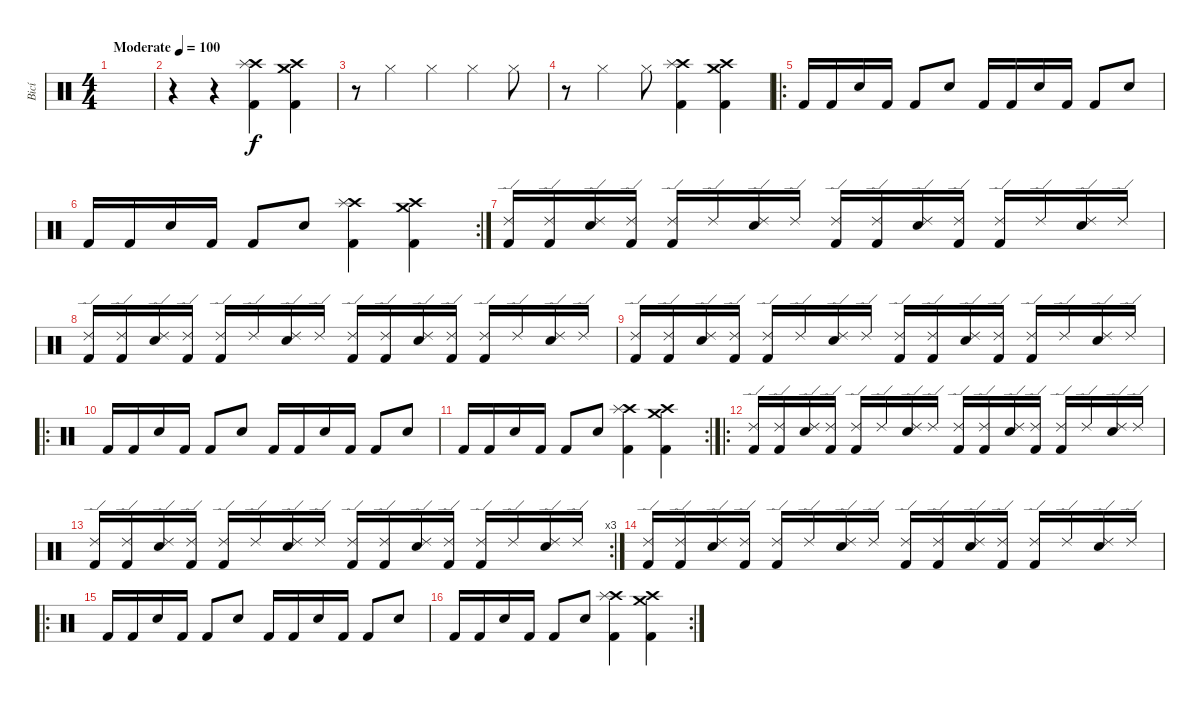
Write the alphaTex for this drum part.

\track ("Bicí" "Bicí") {instrument percussion}
\staff {score}
\articulation defaults
\ts (4 4)
\tempo (100 "Moderate")
\clef neutral
\ks c
|
r.4 r.4 ("Kick (hit) 2" "Crash high (hit)" "Splash (hit)").4 ("Kick (hit) 2" "Crash high (hit)" "Crash medium (hit)").4 |
r.8 "Hi-Hat (closed)".4 "Hi-Hat (closed)".4 "Hi-Hat (closed)".4 "Hi-Hat (closed)".8 |
r.8 "Hi-Hat (closed)".4 "Hi-Hat (closed)".8 ("Kick (hit) 2" "Crash high (hit)" "Splash (hit)").4 ("Kick (hit) 2" "Crash high (hit)" "Crash medium (hit)").4 |
\ro "Kick (hit) 2".16 "Kick (hit) 2".16 "Snare (hit) 2".16 "Kick (hit) 2".16 "Kick (hit) 2".8 "Snare (hit) 2".8 "Kick (hit) 2".16 "Kick (hit) 2".16 "Snare (hit) 2".16 "Kick (hit) 2".16 "Kick (hit) 2".8 "Snare (hit) 2".8
|
\rc 2 "Kick (hit) 2".16 "Kick (hit) 2".16 "Snare (hit) 2".16 "Kick (hit) 2".16 "Kick (hit) 2".8 "Snare (hit) 2".8
("Kick (hit) 2" "Crash high (hit)" "Splash (hit)").4 ("Kick (hit) 2" "Crash high (hit)" "Crash medium (hit)").4 |
("Kick (hit) 2" "Ride (edge) 2").16 ("Kick (hit) 2" "Ride (edge) 2").16 ("Ride (edge) 2" "Snare (hit) 2").16 ("Kick (hit) 2" "Ride (edge) 2").16 ("Kick (hit) 2" "Ride (edge) 2").16 "Ride (edge) 2".16 ("Ride (edge) 2" "Snare (hit) 2").16 "Ride (edge) 2".16 ("Kick (hit) 2" "Ride (edge) 2").16 ("Kick (hit) 2" "Ride (edge) 2").16 ("Ride (edge) 2" "Snare (hit) 2").16 ("Kick (hit) 2" "Ride (edge) 2").16 ("Kick (hit) 2" "Ride (edge) 2").16 "Ride (edge) 2".16 ("Ride (edge) 2" "Snare (hit) 2").16 "Ride (edge) 2".16 |
("Kick (hit) 2" "Ride (edge) 2").16 ("Kick (hit) 2" "Ride (edge) 2").16 ("Ride (edge) 2" "Snare (hit) 2").16 ("Kick (hit) 2" "Ride (edge) 2").16 ("Kick (hit) 2" "Ride (edge) 2").16 "Ride (edge) 2".16 ("Ride (edge) 2" "Snare (hit) 2").16 "Ride (edge) 2".16 ("Kick (hit) 2" "Ride (edge) 2").16 ("Kick (hit) 2" "Ride (edge) 2").16 ("Ride (edge) 2" "Snare (hit) 2").16 ("Kick (hit) 2" "Ride (edge) 2").16 ("Kick (hit) 2" "Ride (edge) 2").16 "Ride (edge) 2".16 ("Ride (edge) 2" "Snare (hit) 2").16 "Ride (edge) 2".16 |
("Kick (hit) 2" "Ride (edge) 2").16 ("Kick (hit) 2" "Ride (edge) 2").16 ("Ride (edge) 2" "Snare (hit) 2").16 ("Kick (hit) 2" "Ride (edge) 2").16 ("Kick (hit) 2" "Ride (edge) 2").16 "Ride (edge) 2".16 ("Ride (edge) 2" "Snare (hit) 2").16 "Ride (edge) 2".16 ("Kick (hit) 2" "Ride (edge) 2").16 ("Kick (hit) 2" "Ride (edge) 2").16 ("Ride (edge) 2" "Snare (hit) 2").16 ("Kick (hit) 2" "Ride (edge) 2").16 ("Kick (hit) 2" "Ride (edge) 2").16 "Ride (edge) 2".16 ("Ride (edge) 2" "Snare (hit) 2").16 "Ride (edge) 2".16 |
\ro "Kick (hit) 2".16 "Kick (hit) 2".16 "Snare (hit) 2".16 "Kick (hit) 2".16 "Kick (hit) 2".8 "Snare (hit) 2".8 "Kick (hit) 2".16 "Kick (hit) 2".16 "Snare (hit) 2".16 "Kick (hit) 2".16 "Kick (hit) 2".8 "Snare (hit) 2".8
|
\rc 2 "Kick (hit) 2".16 "Kick (hit) 2".16 "Snare (hit) 2".16 "Kick (hit) 2".16 "Kick (hit) 2".8 "Snare (hit) 2".8
("Kick (hit) 2" "Crash high (hit)" "Splash (hit)").4 ("Kick (hit) 2" "Crash high (hit)" "Crash medium (hit)").4 |
\ro
("Kick (hit) 2" "Ride (edge) 2").16 ("Kick (hit) 2" "Ride (edge) 2").16 ("Ride (edge) 2" "Snare (hit) 2").16 ("Kick (hit) 2" "Ride (edge) 2").16 ("Kick (hit) 2" "Ride (edge) 2").16 "Ride (edge) 2".16 ("Ride (edge) 2" "Snare (hit) 2").16 "Ride (edge) 2".16 ("Kick (hit) 2" "Ride (edge) 2").16 ("Kick (hit) 2" "Ride (edge) 2").16 ("Ride (edge) 2" "Snare (hit) 2").16 ("Kick (hit) 2" "Ride (edge) 2").16 ("Kick (hit) 2" "Ride (edge) 2").16 "Ride (edge) 2".16 ("Ride (edge) 2" "Snare (hit) 2").16 "Ride (edge) 2".16 |
\rc 3
("Kick (hit) 2" "Ride (edge) 2").16 ("Kick (hit) 2" "Ride (edge) 2").16 ("Ride (edge) 2" "Snare (hit) 2").16 ("Kick (hit) 2" "Ride (edge) 2").16 ("Kick (hit) 2" "Ride (edge) 2").16 "Ride (edge) 2".16 ("Ride (edge) 2" "Snare (hit) 2").16 "Ride (edge) 2".16 ("Kick (hit) 2" "Ride (edge) 2").16 ("Kick (hit) 2" "Ride (edge) 2").16 ("Ride (edge) 2" "Snare (hit) 2").16 ("Kick (hit) 2" "Ride (edge) 2").16 ("Kick (hit) 2" "Ride (edge) 2").16 "Ride (edge) 2".16 ("Ride (edge) 2" "Snare (hit) 2").16 "Ride (edge) 2".16 |
("Kick (hit) 2" "Ride (edge) 2").16 ("Kick (hit) 2" "Ride (edge) 2").16 ("Ride (edge) 2" "Snare (hit) 2").16 ("Kick (hit) 2" "Ride (edge) 2").16 ("Kick (hit) 2" "Ride (edge) 2").16 "Ride (edge) 2".16 ("Ride (edge) 2" "Snare (hit) 2").16 "Ride (edge) 2".16 ("Kick (hit) 2" "Ride (edge) 2").16 ("Kick (hit) 2" "Ride (edge) 2").16 ("Ride (edge) 2" "Snare (hit) 2").16 ("Kick (hit) 2" "Ride (edge) 2").16 ("Kick (hit) 2" "Ride (edge) 2").16 "Ride (edge) 2".16 ("Ride (edge) 2" "Snare (hit) 2").16 "Ride (edge) 2".16 |
\ro "Kick (hit) 2".16 "Kick (hit) 2".16 "Snare (hit) 2".16 "Kick (hit) 2".16 "Kick (hit) 2".8 "Snare (hit) 2".8 "Kick (hit) 2".16 "Kick (hit) 2".16 "Snare (hit) 2".16 "Kick (hit) 2".16 "Kick (hit) 2".8 "Snare (hit) 2".8
|
\rc 2 "Kick (hit) 2".16 "Kick (hit) 2".16 "Snare (hit) 2".16 "Kick (hit) 2".16 "Kick (hit) 2".8 "Snare (hit) 2".8
("Kick (hit) 2" "Crash high (hit)" "Splash (hit)").4 ("Kick (hit) 2" "Crash high (hit)" "Crash medium (hit)").4
